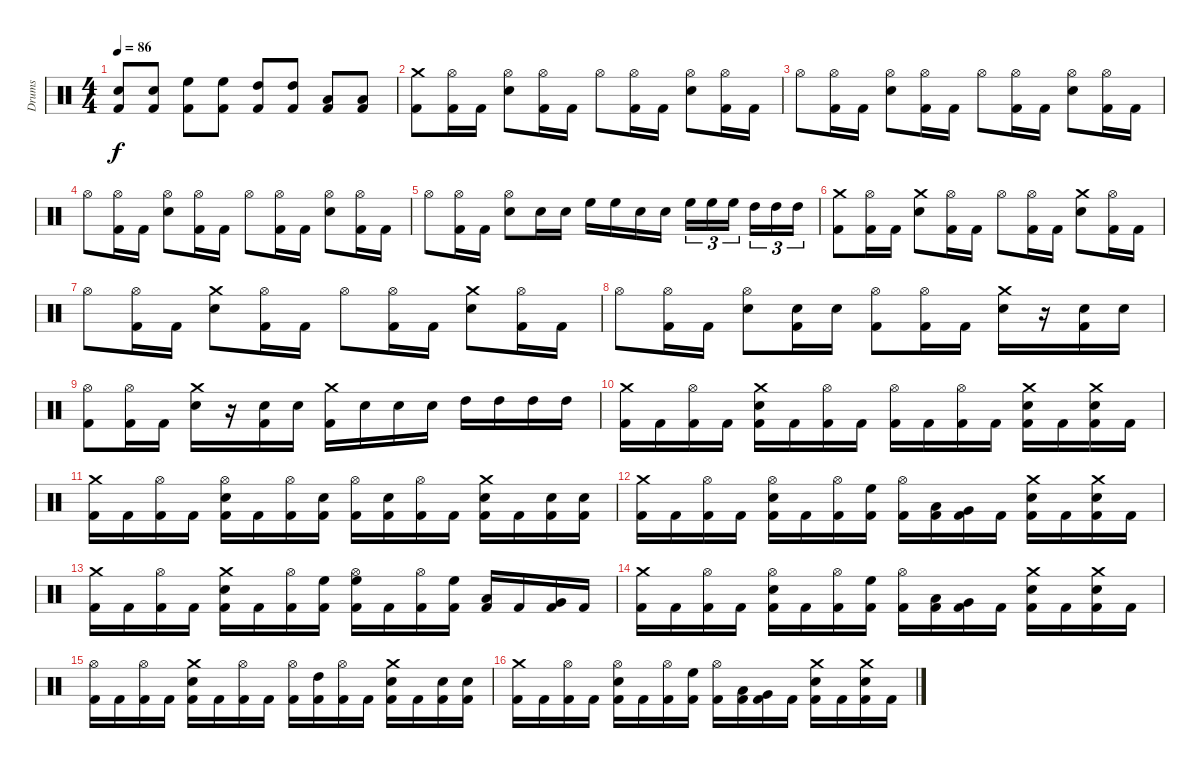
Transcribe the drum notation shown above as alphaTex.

\track ("Drums" "Drums") {instrument percussion}
\staff {score}
\articulation defaults
\ts (4 4)
\tempo 86
\clef neutral
\ks c
("Snare (hit) 2" "Kick (hit) 2").8{dy f} ("Snare (hit) 2" "Kick (hit) 2").8 ("High Floor Tom (hit)" "Kick (hit) 2").8 ("High Floor Tom (hit)" "Kick (hit) 2").8 ("High Tom (hit)" "Kick (hit) 2").8 ("High Tom (hit)" "Kick (hit) 2").8 ("Low Tom (hit)" "Kick (hit) 2").8 ("Low Tom (hit)" "Kick (hit) 2").8 |
("Kick (hit) 2" "Crash medium (hit)").8 ("Kick (hit) 2" "Hi-Hat (open)").16 "Kick (hit) 2".16 ("Snare (hit) 2" "Hi-Hat (open)").8 ("Kick (hit) 2" "Hi-Hat (open)").16 "Kick (hit) 2".16 "Hi-Hat (open)".8 ("Kick (hit) 2" "Hi-Hat (open)").16 "Kick (hit) 2".16 ("Snare (hit) 2" "Hi-Hat (open)").8 ("Kick (hit) 2" "Hi-Hat (open)").16 "Kick (hit) 2".16 |
"Hi-Hat (open)".8 ("Kick (hit) 2" "Hi-Hat (open)").16 "Kick (hit) 2".16 ("Snare (hit) 2" "Hi-Hat (open)").8 ("Kick (hit) 2" "Hi-Hat (open)").16 "Kick (hit) 2".16 "Hi-Hat (open)".8 ("Kick (hit) 2" "Hi-Hat (open)").16 "Kick (hit) 2".16 ("Snare (hit) 2" "Hi-Hat (open)").8 ("Kick (hit) 2" "Hi-Hat (open)").16 "Kick (hit) 2".16 |
"Hi-Hat (open)".8 ("Kick (hit) 2" "Hi-Hat (open)").16 "Kick (hit) 2".16 ("Snare (hit) 2" "Hi-Hat (open)").8 ("Kick (hit) 2" "Hi-Hat (open)").16 "Kick (hit) 2".16 "Hi-Hat (open)".8 ("Kick (hit) 2" "Hi-Hat (open)").16 "Kick (hit) 2".16 ("Snare (hit) 2" "Hi-Hat (open)").8 ("Kick (hit) 2" "Hi-Hat (open)").16 "Kick (hit) 2".16 |
"Hi-Hat (open)".8 ("Kick (hit) 2" "Hi-Hat (open)").16 "Kick (hit) 2".16 ("Snare (hit) 2" "Hi-Hat (open)").8 "Snare (hit) 2".16 "Snare (hit) 2".16 "High Floor Tom (hit)".16 "High Floor Tom (hit)".16 "Snare (hit) 2".16 "Snare (hit) 2".16 "High Floor Tom (hit)".16{tu (3 2)} "High Floor Tom (hit)".16{tu (3 2)} "High Floor Tom (hit)".16{tu (3 2) beam splitsecondary} "High Tom (hit)".16{tu (3 2)} "High Tom (hit)".16{tu (3 2)} "High Tom (hit)".16{tu (3 2)} |
("Crash medium (hit)" "Kick (hit) 2").8 ("Hi-Hat (open)" "Kick (hit) 2").16 "Kick (hit) 2".16 ("Snare (hit) 2" "Crash medium (hit)").8 ("Kick (hit) 2" "Hi-Hat (open)").16 "Kick (hit) 2".16 "Hi-Hat (open)".8 ("Kick (hit) 2" "Hi-Hat (open)").16 "Kick (hit) 2".16 ("Snare (hit) 2" "Crash medium (hit)").8 ("Kick (hit) 2" "Hi-Hat (open)").16 "Kick (hit) 2".16 |
"Hi-Hat (open)".8 ("Kick (hit) 2" "Hi-Hat (open)").16 "Kick (hit) 2".16 ("Snare (hit) 2" "Crash medium (hit)").8 ("Kick (hit) 2" "Hi-Hat (open)").16 "Kick (hit) 2".16 "Hi-Hat (open)".8 ("Kick (hit) 2" "Hi-Hat (open)").16 "Kick (hit) 2".16 ("Snare (hit) 2" "Crash medium (hit)").8 ("Kick (hit) 2" "Hi-Hat (open)").16 "Kick (hit) 2".16 |
"Hi-Hat (open)".8 ("Kick (hit) 2" "Hi-Hat (open)").16 "Kick (hit) 2".16 ("Snare (hit) 2" "Hi-Hat (open)").8 ("Kick (hit) 2" "Snare (hit) 2").16 "Snare (hit) 2".16 ("Kick (hit) 2" "Hi-Hat (open)").8 ("Kick (hit) 2" "Hi-Hat (open)").16 "Kick (hit) 2".16 ("Snare (hit) 2" "Crash medium (hit)").16 r.16 ("Kick (hit) 2" "Snare (hit) 2").16 "Snare (hit) 2".16 |
("Kick (hit) 2" "Hi-Hat (open)").8 ("Kick (hit) 2" "Hi-Hat (open)").16 "Kick (hit) 2".16 ("Snare (hit) 2" "Crash medium (hit)").16 r.16 ("Kick (hit) 2" "Snare (hit) 2").16 "Snare (hit) 2".16 ("Kick (hit) 2" "Crash medium (hit)").16 "Snare (hit) 2".16 "Snare (hit) 2".16 "Snare (hit) 2".16 "High Tom (hit)".16 "High Tom (hit)".16 "High Tom (hit)".16 "High Tom (hit)".16 |
("Crash medium (hit)" "Kick (hit) 2").16 "Kick (hit) 2".16 ("Hi-Hat (open)" "Kick (hit) 2").16 "Kick (hit) 2".16 ("Snare (hit) 2" "Crash medium (hit)" "Kick (hit) 2").16 "Kick (hit) 2".16 ("Hi-Hat (open)" "Kick (hit) 2").16 "Kick (hit) 2".16 ("Hi-Hat (open)" "Kick (hit) 2").16 "Kick (hit) 2".16 ("Hi-Hat (open)" "Kick (hit) 2").16 "Kick (hit) 2".16 ("Snare (hit) 2" "Crash medium (hit)" "Kick (hit) 2").16 "Kick (hit) 2".16 ("Snare (hit) 2" "Crash medium (hit)" "Kick (hit) 2").16 "Kick (hit) 2".16 |
("Crash medium (hit)" "Kick (hit) 2").16 "Kick (hit) 2".16 ("Hi-Hat (open)" "Kick (hit) 2").16 "Kick (hit) 2".16 ("Snare (hit) 2" "Hi-Hat (open)" "Kick (hit) 2").16 "Kick (hit) 2".16 ("Hi-Hat (open)" "Kick (hit) 2").16 ("Snare (hit) 2" "Kick (hit) 2").16 ("Hi-Hat (open)" "Kick (hit) 2").16 ("Snare (hit) 2" "Kick (hit) 2").16 ("Hi-Hat (open)" "Kick (hit) 2").16 "Kick (hit) 2".16 ("Crash medium (hit)" "Snare (hit) 2" "Kick (hit) 2").16 "Kick (hit) 2".16 ("Snare (hit) 2" "Kick (hit) 2").16 ("Snare (hit) 2" "Kick (hit) 2").16 |
("Crash medium (hit)" "Kick (hit) 2").16 "Kick (hit) 2".16 ("Hi-Hat (open)" "Kick (hit) 2").16 "Kick (hit) 2".16 ("Hi-Hat (open)" "Snare (hit) 2" "Kick (hit) 2").16 "Kick (hit) 2".16 ("Hi-Hat (open)" "Kick (hit) 2").16 ("High Floor Tom (hit)" "Kick (hit) 2").16 ("Hi-Hat (open)" "Kick (hit) 2").16 ("Low Tom (hit)" "Kick (hit) 2").16 ("Very Low Tom (hit)" "Kick (hit) 2").16 "Kick (hit) 2".16 ("Crash medium (hit)" "Snare (hit) 2" "Kick (hit) 2").16 "Kick (hit) 2".16 ("Crash medium (hit)" "Snare (hit) 2" "Kick (hit) 2").16 "Kick (hit) 2".16 |
("Crash medium (hit)" "Kick (hit) 2").16 "Kick (hit) 2".16 ("Hi-Hat (open)" "Kick (hit) 2").16 "Kick (hit) 2".16 ("Crash medium (hit)" "Snare (hit) 2" "Kick (hit) 2").16 "Kick (hit) 2".16 ("Hi-Hat (open)" "Kick (hit) 2").16 ("High Floor Tom (hit)" "Kick (hit) 2").16 ("Hi-Hat (open)" "High Floor Tom (hit)" "Kick (hit) 2").16 "Kick (hit) 2".16 ("Hi-Hat (open)" "Kick (hit) 2").16 ("High Floor Tom (hit)" "Kick (hit) 2").16 ("Low Tom (hit)" "Kick (hit) 2").16 "Kick (hit) 2".16 ("Very Low Tom (hit)" "Kick (hit) 2").16 "Kick (hit) 2".16 |
("Crash medium (hit)" "Kick (hit) 2").16 "Kick (hit) 2".16 ("Hi-Hat (open)" "Kick (hit) 2").16 "Kick (hit) 2".16 ("Hi-Hat (open)" "Snare (hit) 2" "Kick (hit) 2").16 "Kick (hit) 2".16 ("Hi-Hat (open)" "Kick (hit) 2").16 ("High Floor Tom (hit)" "Kick (hit) 2").16 ("Hi-Hat (open)" "Kick (hit) 2").16 ("Low Tom (hit)" "Kick (hit) 2").16 ("Very Low Tom (hit)" "Kick (hit) 2").16 "Kick (hit) 2".16 ("Crash medium (hit)" "Snare (hit) 2" "Kick (hit) 2").16 "Kick (hit) 2".16 ("Crash medium (hit)" "Snare (hit) 2" "Kick (hit) 2").16 "Kick (hit) 2".16 |
("Hi-Hat (open)" "Kick (hit) 2").16 "Kick (hit) 2".16 ("Hi-Hat (open)" "Kick (hit) 2").16 "Kick (hit) 2".16 ("Snare (hit) 2" "Crash medium (hit)" "Kick (hit) 2").16 "Kick (hit) 2".16 ("Hi-Hat (open)" "Kick (hit) 2").16 "Kick (hit) 2".16 ("Hi-Hat (open)" "Kick (hit) 2").16 ("High Tom (hit)" "Kick (hit) 2").16 ("Hi-Hat (open)" "Kick (hit) 2").16 "Kick (hit) 2".16 ("Crash medium (hit)" "Snare (hit) 2" "Kick (hit) 2").16 "Kick (hit) 2".16 ("Snare (hit) 2" "Kick (hit) 2").16 ("Snare (hit) 2" "Kick (hit) 2").16 |
("Crash medium (hit)" "Kick (hit) 2").16 "Kick (hit) 2".16 ("Hi-Hat (open)" "Kick (hit) 2").16 "Kick (hit) 2".16 ("Hi-Hat (open)" "Snare (hit) 2" "Kick (hit) 2").16 "Kick (hit) 2".16 ("Hi-Hat (open)" "Kick (hit) 2").16 ("High Floor Tom (hit)" "Kick (hit) 2").16 ("Hi-Hat (open)" "Kick (hit) 2").16 ("Low Tom (hit)" "Kick (hit) 2").16 ("Very Low Tom (hit)" "Kick (hit) 2").16 "Kick (hit) 2".16 ("Crash medium (hit)" "Snare (hit) 2" "Kick (hit) 2").16 "Kick (hit) 2".16 ("Crash medium (hit)" "Snare (hit) 2" "Kick (hit) 2").16 "Kick (hit) 2".16
